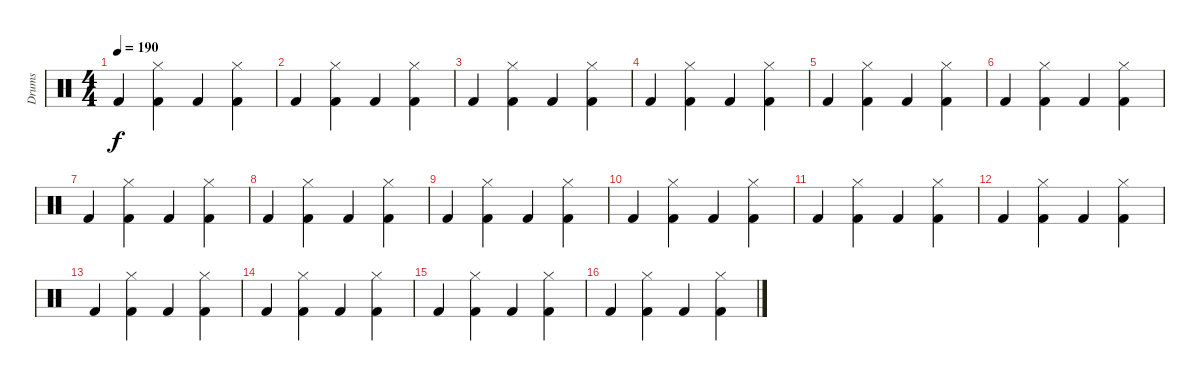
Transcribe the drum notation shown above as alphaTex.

\track ("Drums" "Drums") {instrument percussion}
\staff {score}
\articulation defaults
\ts (4 4)
\tempo 190
\clef neutral
\ks c "Kick (hit) 2".4{dy f}
("Hi-Hat (closed)" "Kick (hit) 2").4 "Kick (hit) 2".4 ("Hi-Hat (closed)" "Kick (hit) 2").4 |
"Kick (hit) 2".4 ("Hi-Hat (closed)" "Kick (hit) 2").4 "Kick (hit) 2".4 ("Hi-Hat (closed)" "Kick (hit) 2").4 |
"Kick (hit) 2".4 ("Hi-Hat (closed)" "Kick (hit) 2").4 "Kick (hit) 2".4 ("Hi-Hat (closed)" "Kick (hit) 2").4 |
"Kick (hit) 2".4 ("Hi-Hat (closed)" "Kick (hit) 2").4 "Kick (hit) 2".4 ("Hi-Hat (closed)" "Kick (hit) 2").4 |
"Kick (hit) 2".4 ("Hi-Hat (closed)" "Kick (hit) 2").4 "Kick (hit) 2".4 ("Hi-Hat (closed)" "Kick (hit) 2").4 |
"Kick (hit) 2".4 ("Hi-Hat (closed)" "Kick (hit) 2").4 "Kick (hit) 2".4 ("Hi-Hat (closed)" "Kick (hit) 2").4 |
"Kick (hit) 2".4 ("Hi-Hat (closed)" "Kick (hit) 2").4 "Kick (hit) 2".4 ("Hi-Hat (closed)" "Kick (hit) 2").4 |
"Kick (hit) 2".4 ("Hi-Hat (closed)" "Kick (hit) 2").4 "Kick (hit) 2".4 ("Hi-Hat (closed)" "Kick (hit) 2").4 |
"Kick (hit) 2".4 ("Hi-Hat (closed)" "Kick (hit) 2").4 "Kick (hit) 2".4 ("Hi-Hat (closed)" "Kick (hit) 2").4 |
"Kick (hit) 2".4 ("Hi-Hat (closed)" "Kick (hit) 2").4 "Kick (hit) 2".4 ("Hi-Hat (closed)" "Kick (hit) 2").4 |
"Kick (hit) 2".4 ("Hi-Hat (closed)" "Kick (hit) 2").4 "Kick (hit) 2".4 ("Hi-Hat (closed)" "Kick (hit) 2").4 |
"Kick (hit) 2".4 ("Hi-Hat (closed)" "Kick (hit) 2").4 "Kick (hit) 2".4 ("Hi-Hat (closed)" "Kick (hit) 2").4 |
"Kick (hit) 2".4 ("Hi-Hat (closed)" "Kick (hit) 2").4 "Kick (hit) 2".4 ("Hi-Hat (closed)" "Kick (hit) 2").4 |
"Kick (hit) 2".4 ("Hi-Hat (closed)" "Kick (hit) 2").4 "Kick (hit) 2".4 ("Hi-Hat (closed)" "Kick (hit) 2").4 |
"Kick (hit) 2".4 ("Hi-Hat (closed)" "Kick (hit) 2").4 "Kick (hit) 2".4 ("Hi-Hat (closed)" "Kick (hit) 2").4 |
"Kick (hit) 2".4 ("Hi-Hat (closed)" "Kick (hit) 2").4 "Kick (hit) 2".4 ("Hi-Hat (closed)" "Kick (hit) 2").4
